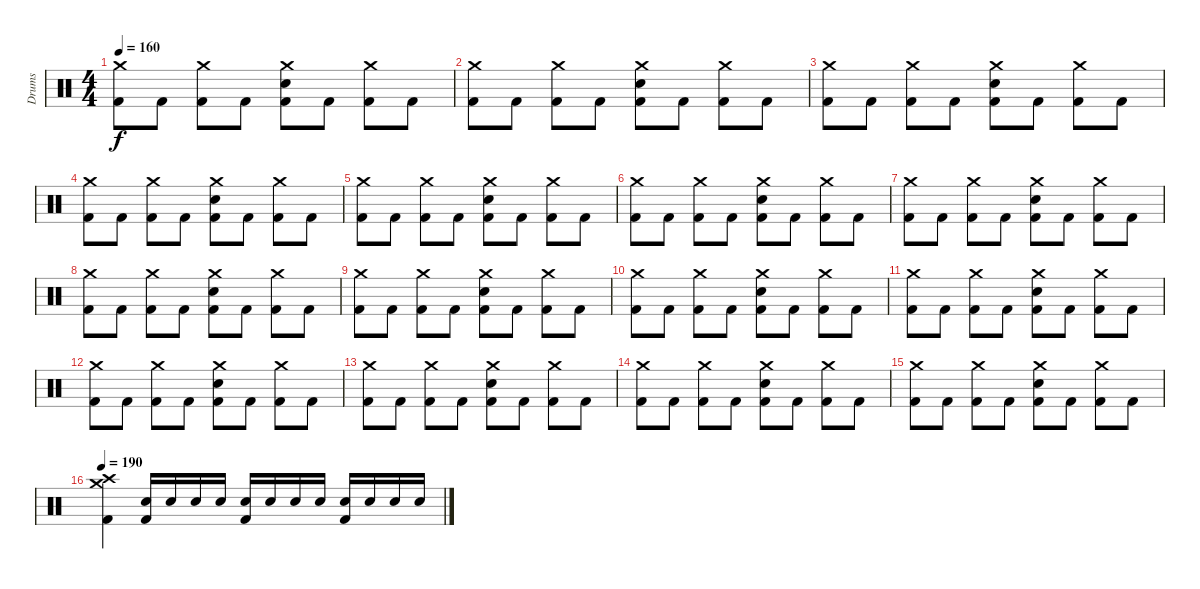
\track ("Drums" "Drums") {instrument percussion}
\staff {score}
\articulation defaults
\ts (4 4)
\tempo 160
\clef neutral
\ks c
("Crash medium (hit)" "Kick (hit) 2").8{dy f} "Kick (hit) 2".8 ("Crash medium (hit)" "Kick (hit) 2").8 "Kick (hit) 2".8 ("Crash medium (hit)" "Electric Snare (hit)" "Kick (hit) 2").8 "Kick (hit) 2".8 ("Crash medium (hit)" "Kick (hit) 2").8 "Kick (hit) 2".8 |
("Crash medium (hit)" "Kick (hit) 2").8 "Kick (hit) 2".8 ("Crash medium (hit)" "Kick (hit) 2").8 "Kick (hit) 2".8 ("Crash medium (hit)" "Electric Snare (hit)" "Kick (hit) 2").8 "Kick (hit) 2".8 ("Crash medium (hit)" "Kick (hit) 2").8 "Kick (hit) 2".8 |
("Crash medium (hit)" "Kick (hit) 2").8 "Kick (hit) 2".8 ("Crash medium (hit)" "Kick (hit) 2").8 "Kick (hit) 2".8 ("Crash medium (hit)" "Electric Snare (hit)" "Kick (hit) 2").8 "Kick (hit) 2".8 ("Crash medium (hit)" "Kick (hit) 2").8 "Kick (hit) 2".8 |
("Crash medium (hit)" "Kick (hit) 2").8 "Kick (hit) 2".8 ("Crash medium (hit)" "Kick (hit) 2").8 "Kick (hit) 2".8 ("Crash medium (hit)" "Electric Snare (hit)" "Kick (hit) 2").8 "Kick (hit) 2".8 ("Crash medium (hit)" "Kick (hit) 2").8 "Kick (hit) 2".8 |
("Crash medium (hit)" "Kick (hit) 2").8 "Kick (hit) 2".8 ("Crash medium (hit)" "Kick (hit) 2").8 "Kick (hit) 2".8 ("Crash medium (hit)" "Electric Snare (hit)" "Kick (hit) 2").8 "Kick (hit) 2".8 ("Crash medium (hit)" "Kick (hit) 2").8 "Kick (hit) 2".8 |
("Crash medium (hit)" "Kick (hit) 2").8 "Kick (hit) 2".8 ("Crash medium (hit)" "Kick (hit) 2").8 "Kick (hit) 2".8 ("Crash medium (hit)" "Electric Snare (hit)" "Kick (hit) 2").8 "Kick (hit) 2".8 ("Crash medium (hit)" "Kick (hit) 2").8 "Kick (hit) 2".8 |
("Crash medium (hit)" "Kick (hit) 2").8 "Kick (hit) 2".8 ("Crash medium (hit)" "Kick (hit) 2").8 "Kick (hit) 2".8 ("Crash medium (hit)" "Electric Snare (hit)" "Kick (hit) 2").8 "Kick (hit) 2".8 ("Crash medium (hit)" "Kick (hit) 2").8 "Kick (hit) 2".8 |
("Crash medium (hit)" "Kick (hit) 2").8 "Kick (hit) 2".8 ("Crash medium (hit)" "Kick (hit) 2").8 "Kick (hit) 2".8 ("Crash medium (hit)" "Electric Snare (hit)" "Kick (hit) 2").8 "Kick (hit) 2".8 ("Crash medium (hit)" "Kick (hit) 2").8 "Kick (hit) 2".8 |
("Crash medium (hit)" "Kick (hit) 2").8 "Kick (hit) 2".8 ("Crash medium (hit)" "Kick (hit) 2").8 "Kick (hit) 2".8 ("Crash medium (hit)" "Electric Snare (hit)" "Kick (hit) 2").8 "Kick (hit) 2".8 ("Crash medium (hit)" "Kick (hit) 2").8 "Kick (hit) 2".8 |
("Crash medium (hit)" "Kick (hit) 2").8 "Kick (hit) 2".8 ("Crash medium (hit)" "Kick (hit) 2").8 "Kick (hit) 2".8 ("Crash medium (hit)" "Electric Snare (hit)" "Kick (hit) 2").8 "Kick (hit) 2".8 ("Crash medium (hit)" "Kick (hit) 2").8 "Kick (hit) 2".8 |
("Crash medium (hit)" "Kick (hit) 2").8 "Kick (hit) 2".8 ("Crash medium (hit)" "Kick (hit) 2").8 "Kick (hit) 2".8 ("Crash medium (hit)" "Electric Snare (hit)" "Kick (hit) 2").8 "Kick (hit) 2".8 ("Crash medium (hit)" "Kick (hit) 2").8 "Kick (hit) 2".8 |
("Crash medium (hit)" "Kick (hit) 2").8 "Kick (hit) 2".8 ("Crash medium (hit)" "Kick (hit) 2").8 "Kick (hit) 2".8 ("Crash medium (hit)" "Electric Snare (hit)" "Kick (hit) 2").8 "Kick (hit) 2".8 ("Crash medium (hit)" "Kick (hit) 2").8 "Kick (hit) 2".8 |
("Crash medium (hit)" "Kick (hit) 2").8 "Kick (hit) 2".8 ("Crash medium (hit)" "Kick (hit) 2").8 "Kick (hit) 2".8 ("Crash medium (hit)" "Electric Snare (hit)" "Kick (hit) 2").8 "Kick (hit) 2".8 ("Crash medium (hit)" "Kick (hit) 2").8 "Kick (hit) 2".8 |
("Crash medium (hit)" "Kick (hit) 2").8 "Kick (hit) 2".8 ("Crash medium (hit)" "Kick (hit) 2").8 "Kick (hit) 2".8 ("Crash medium (hit)" "Electric Snare (hit)" "Kick (hit) 2").8 "Kick (hit) 2".8 ("Crash medium (hit)" "Kick (hit) 2").8 "Kick (hit) 2".8 |
("Crash medium (hit)" "Kick (hit) 2").8 "Kick (hit) 2".8 ("Crash medium (hit)" "Kick (hit) 2").8 "Kick (hit) 2".8 ("Crash medium (hit)" "Electric Snare (hit)" "Kick (hit) 2").8 "Kick (hit) 2".8 ("Crash medium (hit)" "Kick (hit) 2").8 "Kick (hit) 2".8 |
\tempo 190
("Crash medium (hit)" "Crash high (hit)" "Kick (hit) 2").4 ("Electric Snare (hit)" "Kick (hit) 2").16 "Electric Snare (hit)".16 "Electric Snare (hit)".16 "Electric Snare (hit)".16 ("Electric Snare (hit)" "Kick (hit) 2").16 "Electric Snare (hit)".16 "Electric Snare (hit)".16 "Electric Snare (hit)".16 ("Electric Snare (hit)" "Kick (hit) 2").16 "Electric Snare (hit)".16 "Electric Snare (hit)".16 "Electric Snare (hit)".16
